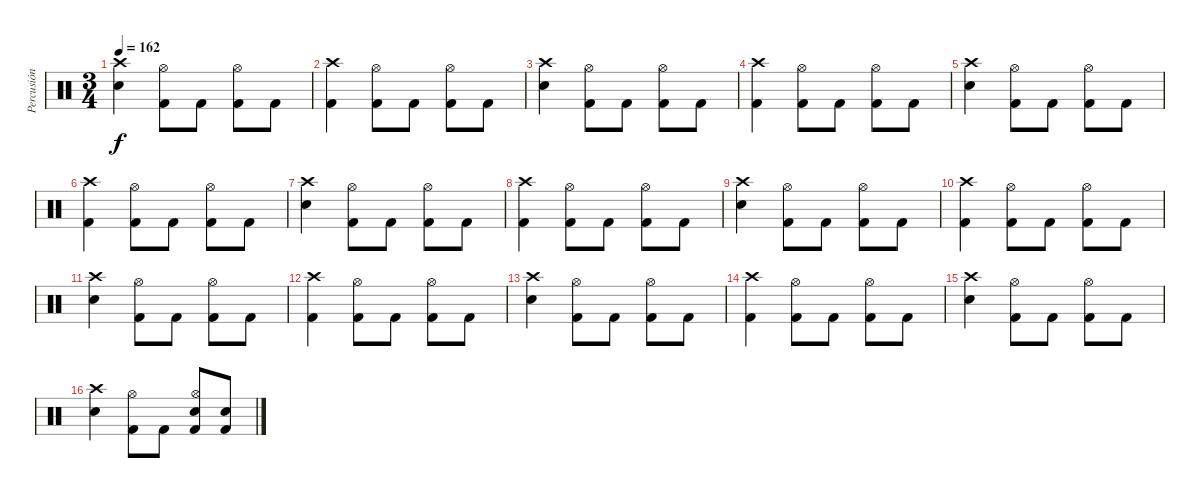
\track ("Percusión" "Percusión") {instrument percussion}
\staff {score}
\articulation defaults
\ts (3 4)
\tempo 162
\clef neutral
\ks c
("Crash high (hit)" "Electric Snare (hit)").4{dy f} ("Hi-Hat (open)" "Kick (hit) 2").8 "Kick (hit) 2".8 ("Hi-Hat (open)" "Kick (hit) 2").8 "Kick (hit) 2".8 |
("Crash high (hit)" "Kick (hit) 2").4 ("Hi-Hat (open)" "Kick (hit) 2").8 "Kick (hit) 2".8 ("Hi-Hat (open)" "Kick (hit) 2").8 "Kick (hit) 2".8 |
("Crash high (hit)" "Electric Snare (hit)").4 ("Hi-Hat (open)" "Kick (hit) 2").8 "Kick (hit) 2".8 ("Hi-Hat (open)" "Kick (hit) 2").8 "Kick (hit) 2".8 |
("Crash high (hit)" "Kick (hit) 2").4 ("Hi-Hat (open)" "Kick (hit) 2").8 "Kick (hit) 2".8 ("Hi-Hat (open)" "Kick (hit) 2").8 "Kick (hit) 2".8 |
("Crash high (hit)" "Electric Snare (hit)").4 ("Hi-Hat (open)" "Kick (hit) 2").8 "Kick (hit) 2".8 ("Hi-Hat (open)" "Kick (hit) 2").8 "Kick (hit) 2".8 |
("Crash high (hit)" "Kick (hit) 2").4 ("Hi-Hat (open)" "Kick (hit) 2").8 "Kick (hit) 2".8 ("Hi-Hat (open)" "Kick (hit) 2").8 "Kick (hit) 2".8 |
("Crash high (hit)" "Electric Snare (hit)").4 ("Hi-Hat (open)" "Kick (hit) 2").8 "Kick (hit) 2".8 ("Hi-Hat (open)" "Kick (hit) 2").8 "Kick (hit) 2".8 |
("Crash high (hit)" "Kick (hit) 2").4 ("Hi-Hat (open)" "Kick (hit) 2").8 "Kick (hit) 2".8 ("Hi-Hat (open)" "Kick (hit) 2").8 "Kick (hit) 2".8 |
("Crash high (hit)" "Electric Snare (hit)").4 ("Hi-Hat (open)" "Kick (hit) 2").8 "Kick (hit) 2".8 ("Hi-Hat (open)" "Kick (hit) 2").8 "Kick (hit) 2".8 |
("Crash high (hit)" "Kick (hit) 2").4 ("Hi-Hat (open)" "Kick (hit) 2").8 "Kick (hit) 2".8 ("Hi-Hat (open)" "Kick (hit) 2").8 "Kick (hit) 2".8 |
("Crash high (hit)" "Electric Snare (hit)").4 ("Hi-Hat (open)" "Kick (hit) 2").8 "Kick (hit) 2".8 ("Hi-Hat (open)" "Kick (hit) 2").8 "Kick (hit) 2".8 |
("Crash high (hit)" "Kick (hit) 2").4 ("Hi-Hat (open)" "Kick (hit) 2").8 "Kick (hit) 2".8 ("Hi-Hat (open)" "Kick (hit) 2").8 "Kick (hit) 2".8 |
("Crash high (hit)" "Electric Snare (hit)").4 ("Hi-Hat (open)" "Kick (hit) 2").8 "Kick (hit) 2".8 ("Hi-Hat (open)" "Kick (hit) 2").8 "Kick (hit) 2".8 |
("Crash high (hit)" "Kick (hit) 2").4 ("Hi-Hat (open)" "Kick (hit) 2").8 "Kick (hit) 2".8 ("Hi-Hat (open)" "Kick (hit) 2").8 "Kick (hit) 2".8 |
("Crash high (hit)" "Electric Snare (hit)").4 ("Hi-Hat (open)" "Kick (hit) 2").8 "Kick (hit) 2".8 ("Hi-Hat (open)" "Kick (hit) 2").8 "Kick (hit) 2".8 |
("Crash high (hit)" "Electric Snare (hit)").4 ("Hi-Hat (open)" "Kick (hit) 2").8 "Kick (hit) 2".8 ("Hi-Hat (open)" "Electric Snare (hit)" "Kick (hit) 2").8 ("Electric Snare (hit)" "Kick (hit) 2").8
